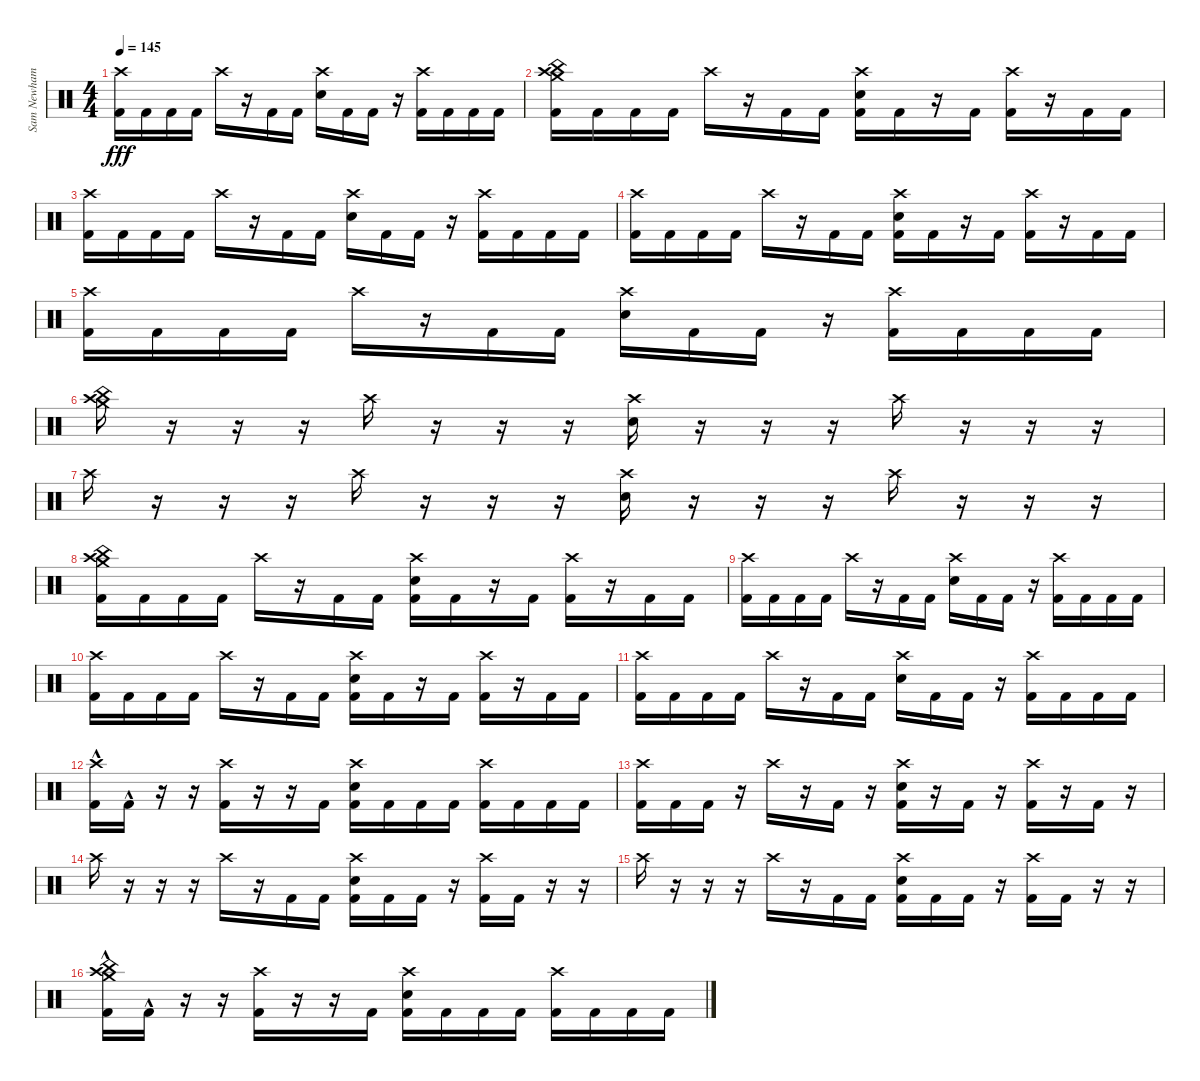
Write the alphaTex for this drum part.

\track ("Sam Newham" "Sam Newham") {instrument percussion}
\staff {score}
\articulation defaults
\ts (4 4)
\tempo 145
\clef neutral
\ks c
("Crash high (hit)" "Kick (hit) 2").16{dy fff} "Kick (hit) 2".16 "Kick (hit) 2".16 "Kick (hit) 2".16 "Crash high (hit)".16 r.16 "Kick (hit) 2".16 "Kick (hit) 2".16 ("Crash high (hit)" "Electric Snare (hit)").16 "Kick (hit) 2".16 "Kick (hit) 2".16 r.16 ("Crash high (hit)" "Kick (hit) 2").16 "Kick (hit) 2".16 "Kick (hit) 2".16 "Kick (hit) 2".16 |
("Crash high (hit)" "Crash medium (hit)" "China (hit)" "Kick (hit) 2").16 "Kick (hit) 2".16 "Kick (hit) 2".16 "Kick (hit) 2".16 "Crash high (hit)".16 r.16 "Kick (hit) 2".16 "Kick (hit) 2".16 ("Crash high (hit)" "Electric Snare (hit)" "Kick (hit) 2").16 "Kick (hit) 2".16 r.16 "Kick (hit) 2".16 ("Crash high (hit)" "Kick (hit) 2").16 r.16 "Kick (hit) 2".16 "Kick (hit) 2".16 |
("Crash high (hit)" "Kick (hit) 2").16 "Kick (hit) 2".16 "Kick (hit) 2".16 "Kick (hit) 2".16 "Crash high (hit)".16 r.16 "Kick (hit) 2".16 "Kick (hit) 2".16 ("Crash high (hit)" "Electric Snare (hit)").16 "Kick (hit) 2".16 "Kick (hit) 2".16 r.16 ("Crash high (hit)" "Kick (hit) 2").16 "Kick (hit) 2".16 "Kick (hit) 2".16 "Kick (hit) 2".16 |
("Crash high (hit)" "Kick (hit) 2").16 "Kick (hit) 2".16 "Kick (hit) 2".16 "Kick (hit) 2".16 "Crash high (hit)".16 r.16 "Kick (hit) 2".16 "Kick (hit) 2".16 ("Crash high (hit)" "Electric Snare (hit)" "Kick (hit) 2").16 "Kick (hit) 2".16 r.16 "Kick (hit) 2".16 ("Crash high (hit)" "Kick (hit) 2").16 r.16 "Kick (hit) 2".16 "Kick (hit) 2".16 |
("Crash high (hit)" "Kick (hit) 2").16 "Kick (hit) 2".16 "Kick (hit) 2".16 "Kick (hit) 2".16 "Crash high (hit)".16 r.16 "Kick (hit) 2".16 "Kick (hit) 2".16 ("Crash high (hit)" "Electric Snare (hit)").16 "Kick (hit) 2".16 "Kick (hit) 2".16 r.16 ("Crash high (hit)" "Kick (hit) 2").16 "Kick (hit) 2".16 "Kick (hit) 2".16 "Kick (hit) 2".16 |
("Crash high (hit)" "Crash medium (hit)" "China (hit)").16 r.16 r.16 r.16 "Crash high (hit)".16 r.16 r.16 r.16 ("Crash high (hit)" "Electric Snare (hit)").16 r.16 r.16 r.16 "Crash high (hit)".16 r.16 r.16 r.16 |
"Crash high (hit)".16 r.16 r.16 r.16 "Crash high (hit)".16 r.16 r.16 r.16 ("Crash high (hit)" "Electric Snare (hit)").16 r.16 r.16 r.16 "Crash high (hit)".16 r.16 r.16 r.16 |
("Crash high (hit)" "Crash medium (hit)" "China (hit)" "Kick (hit) 2").16 "Kick (hit) 2".16 "Kick (hit) 2".16 "Kick (hit) 2".16 "Crash high (hit)".16 r.16 "Kick (hit) 2".16 "Kick (hit) 2".16 ("Crash high (hit)" "Electric Snare (hit)" "Kick (hit) 2").16 "Kick (hit) 2".16 r.16 "Kick (hit) 2".16 ("Crash high (hit)" "Kick (hit) 2").16 r.16 "Kick (hit) 2".16 "Kick (hit) 2".16 |
("Crash high (hit)" "Kick (hit) 2").16 "Kick (hit) 2".16 "Kick (hit) 2".16 "Kick (hit) 2".16 "Crash high (hit)".16 r.16 "Kick (hit) 2".16 "Kick (hit) 2".16 ("Crash high (hit)" "Electric Snare (hit)").16 "Kick (hit) 2".16 "Kick (hit) 2".16 r.16 ("Crash high (hit)" "Kick (hit) 2").16 "Kick (hit) 2".16 "Kick (hit) 2".16 "Kick (hit) 2".16 |
("Crash high (hit)" "Kick (hit) 2").16 "Kick (hit) 2".16 "Kick (hit) 2".16 "Kick (hit) 2".16 "Crash high (hit)".16 r.16 "Kick (hit) 2".16 "Kick (hit) 2".16 ("Crash high (hit)" "Electric Snare (hit)" "Kick (hit) 2").16 "Kick (hit) 2".16 r.16 "Kick (hit) 2".16 ("Crash high (hit)" "Kick (hit) 2").16 r.16 "Kick (hit) 2".16 "Kick (hit) 2".16 |
("Crash high (hit)" "Kick (hit) 2").16 "Kick (hit) 2".16 "Kick (hit) 2".16 "Kick (hit) 2".16 "Crash high (hit)".16 r.16 "Kick (hit) 2".16 "Kick (hit) 2".16 ("Crash high (hit)" "Electric Snare (hit)").16 "Kick (hit) 2".16 "Kick (hit) 2".16 r.16 ("Crash high (hit)" "Kick (hit) 2").16 "Kick (hit) 2".16 "Kick (hit) 2".16 "Kick (hit) 2".16 |
("Crash high (hit)"{hac} "Kick (hit) 2"{hac}).16 "Kick (hit) 2"{hac}.16 r.16 r.16 ("Crash high (hit)" "Kick (hit) 2").16 r.16 r.16 "Kick (hit) 2".16 ("Crash high (hit)" "Electric Snare (hit)" "Kick (hit) 2").16 "Kick (hit) 2".16 "Kick (hit) 2".16 "Kick (hit) 2".16 ("Crash high (hit)" "Kick (hit) 2").16 "Kick (hit) 2".16 "Kick (hit) 2".16 "Kick (hit) 2".16 |
("Crash high (hit)" "Kick (hit) 2").16 "Kick (hit) 2".16 "Kick (hit) 2".16 r.16 "Crash high (hit)".16 r.16 "Kick (hit) 2".16 r.16 ("Crash high (hit)" "Electric Snare (hit)" "Kick (hit) 2").16 r.16 "Kick (hit) 2".16 r.16 ("Crash high (hit)" "Kick (hit) 2").16 r.16 "Kick (hit) 2".16 r.16 |
"Crash high (hit)".16 r.16 r.16 r.16 "Crash high (hit)".16 r.16 "Kick (hit) 2".16 "Kick (hit) 2".16 ("Crash high (hit)" "Electric Snare (hit)" "Kick (hit) 2").16 "Kick (hit) 2".16 "Kick (hit) 2".16 r.16 ("Crash high (hit)" "Kick (hit) 2").16 "Kick (hit) 2".16 r.16 r.16 |
"Crash high (hit)".16 r.16 r.16 r.16 "Crash high (hit)".16 r.16 "Kick (hit) 2".16 "Kick (hit) 2".16 ("Crash high (hit)" "Electric Snare (hit)" "Kick (hit) 2").16 "Kick (hit) 2".16 "Kick (hit) 2".16 r.16 ("Crash high (hit)" "Kick (hit) 2").16 "Kick (hit) 2".16 r.16 r.16 |
("Crash high (hit)"{hac} "Crash medium (hit)"{hac} "China (hit)"{hac} "Kick (hit) 2"{hac}).16 "Kick (hit) 2"{hac}.16 r.16 r.16 ("Crash high (hit)" "Kick (hit) 2").16 r.16 r.16 "Kick (hit) 2".16 ("Crash high (hit)" "Electric Snare (hit)" "Kick (hit) 2").16 "Kick (hit) 2".16 "Kick (hit) 2".16 "Kick (hit) 2".16 ("Crash high (hit)" "Kick (hit) 2").16 "Kick (hit) 2".16 "Kick (hit) 2".16 "Kick (hit) 2".16
